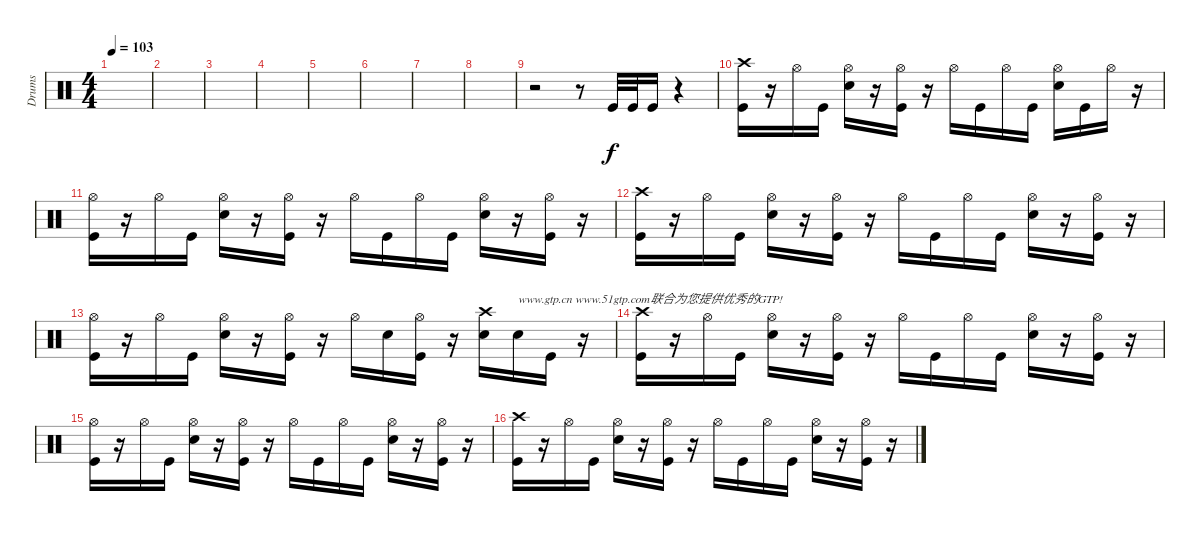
\track ("Drums" "Drums") {instrument percussion}
\staff {score}
\articulation defaults
\ts (4 4)
\tempo 103
\clef neutral
\ks c
|
|
|
|
|
|
|
|
r.2 r.8 "Kick (hit)".32 "Kick (hit)".32 "Kick (hit)".16 r.4 |
("Crash high (hit)" "Kick (hit)").16 r.16 "Hi-Hat (open)".16 "Kick (hit)".16 ("Hi-Hat (open)" "Electric Snare (hit)").16 r.16 ("Hi-Hat (open)" "Kick (hit)").16 r.16 "Hi-Hat (open)".16 "Kick (hit)".16 "Hi-Hat (open)".16 "Kick (hit)".16 ("Hi-Hat (open)" "Electric Snare (hit)").16 "Kick (hit)".16 "Hi-Hat (open)".16 r.16 |
("Hi-Hat (open)" "Kick (hit)").16 r.16 "Hi-Hat (open)".16 "Kick (hit)".16 ("Hi-Hat (open)" "Electric Snare (hit)").16 r.16 ("Hi-Hat (open)" "Kick (hit)").16 r.16 "Hi-Hat (open)".16 "Kick (hit)".16 "Hi-Hat (open)".16 "Kick (hit)".16 ("Hi-Hat (open)" "Electric Snare (hit)").16 r.16 ("Hi-Hat (open)" "Kick (hit)").16 r.16 |
("Crash high (hit)" "Kick (hit)").16 r.16 "Hi-Hat (open)".16 "Kick (hit)".16 ("Hi-Hat (open)" "Electric Snare (hit)").16 r.16 ("Hi-Hat (open)" "Kick (hit)").16 r.16 "Hi-Hat (open)".16 "Kick (hit)".16 "Hi-Hat (open)".16 "Kick (hit)".16 ("Hi-Hat (open)" "Electric Snare (hit)").16 r.16 ("Hi-Hat (open)" "Kick (hit)").16 r.16 |
("Hi-Hat (open)" "Kick (hit)").16 r.16 "Hi-Hat (open)".16 "Kick (hit)".16 ("Hi-Hat (open)" "Electric Snare (hit)").16 r.16 ("Hi-Hat (open)" "Kick (hit)").16 r.16 "Hi-Hat (open)".16 "Electric Snare (hit)".16 ("Hi-Hat (open)" "Kick (hit)").16 r.16 ("Crash high (hit)" "Electric Snare (hit)").16 "Electric Snare (hit)".16{txt "www.gtp.cn www.51gtp.com联合为您提供优秀的GTP!"} "Kick (hit)".16 r.16 |
("Crash high (hit)" "Kick (hit)").16 r.16 "Hi-Hat (open)".16 "Kick (hit)".16 ("Hi-Hat (open)" "Electric Snare (hit)").16 r.16 ("Hi-Hat (open)" "Kick (hit)").16 r.16 "Hi-Hat (open)".16 "Kick (hit)".16 "Hi-Hat (open)".16 "Kick (hit)".16 ("Hi-Hat (open)" "Electric Snare (hit)").16 r.16 ("Hi-Hat (open)" "Kick (hit)").16 r.16 |
("Hi-Hat (open)" "Kick (hit)").16 r.16 "Hi-Hat (open)".16 "Kick (hit)".16 ("Hi-Hat (open)" "Electric Snare (hit)").16 r.16 ("Hi-Hat (open)" "Kick (hit)").16 r.16 "Hi-Hat (open)".16 "Kick (hit)".16 "Hi-Hat (open)".16 "Kick (hit)".16 ("Hi-Hat (open)" "Electric Snare (hit)").16 r.16 ("Hi-Hat (open)" "Kick (hit)").16 r.16 |
("Crash high (hit)" "Kick (hit)").16 r.16 "Hi-Hat (open)".16 "Kick (hit)".16 ("Hi-Hat (open)" "Electric Snare (hit)").16 r.16 ("Hi-Hat (open)" "Kick (hit)").16 r.16 "Hi-Hat (open)".16 "Kick (hit)".16 "Hi-Hat (open)".16 "Kick (hit)".16 ("Hi-Hat (open)" "Electric Snare (hit)").16 r.16 ("Hi-Hat (open)" "Kick (hit)").16 r.16
